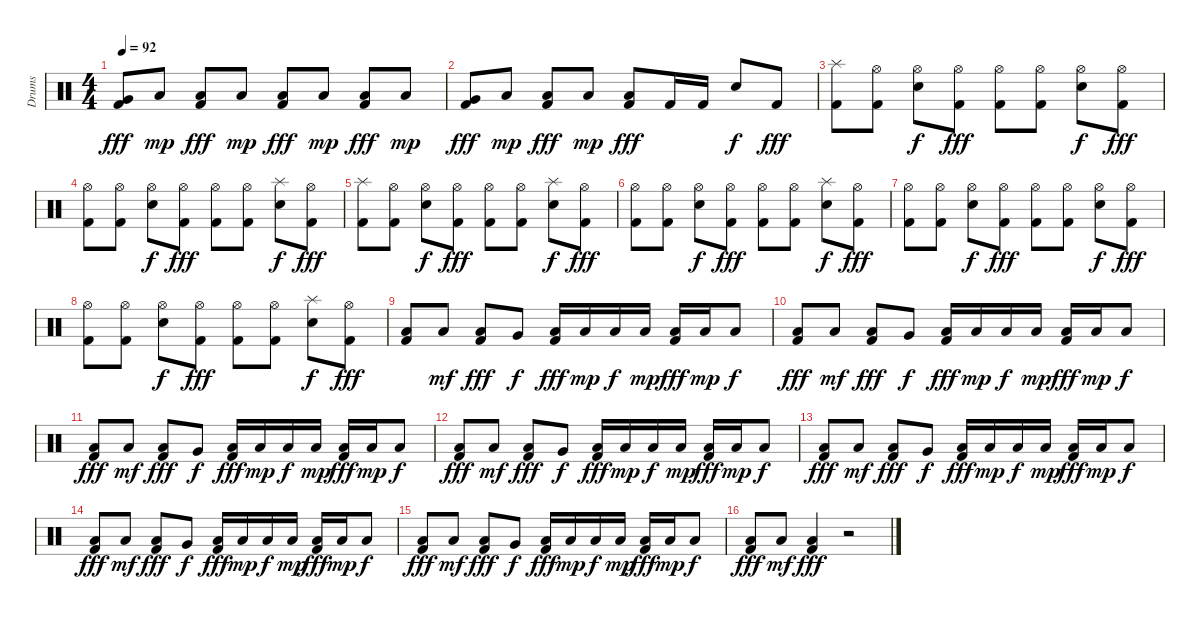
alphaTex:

\track ("Drums" "Drums") {instrument percussion}
\staff {score}
\articulation defaults
\ts (4 4)
\tempo 92
\clef neutral
\ks c
("Very Low Tom (hit)" "Kick (hit) 2").8{dy fff} "Low Floor Tom (hit)".8{dy mp} ("Low Floor Tom (hit)" "Kick (hit) 2").8{dy fff} "Low Floor Tom (hit)".8{dy mp} ("Low Floor Tom (hit)" "Kick (hit) 2").8{dy fff} "Low Floor Tom (hit)".8{dy mp} ("Low Floor Tom (hit)" "Kick (hit) 2").8{dy fff} "Low Floor Tom (hit)".8{dy mp} |
("Very Low Tom (hit)" "Kick (hit) 2").8{dy fff} "Low Floor Tom (hit)".8{dy mp} ("Low Floor Tom (hit)" "Kick (hit) 2").8{dy fff} "Low Floor Tom (hit)".8{dy mp} ("Low Floor Tom (hit)" "Kick (hit) 2").8{dy fff} "Kick (hit) 2".16 "Kick (hit) 2".16 "Snare (hit) 2".8{dy f} "Kick (hit) 2".8{dy fff} |
("Splash (hit)" "Kick (hit) 2").8 ("Hi-Hat (open)" "Kick (hit) 2").8 ("Hi-Hat (open)" "Snare (hit) 2").8{dy f} ("Hi-Hat (open)" "Kick (hit) 2").8{dy fff} ("Hi-Hat (open)" "Kick (hit) 2").8 ("Hi-Hat (open)" "Kick (hit) 2").8 ("Hi-Hat (open)" "Snare (hit) 2").8{dy f} ("Hi-Hat (open)" "Kick (hit) 2").8{dy fff} |
("Hi-Hat (open)" "Kick (hit) 2").8 ("Hi-Hat (open)" "Kick (hit) 2").8 ("Hi-Hat (open)" "Snare (hit) 2").8{dy f} ("Hi-Hat (open)" "Kick (hit) 2").8{dy fff} ("Hi-Hat (open)" "Kick (hit) 2").8 ("Hi-Hat (open)" "Kick (hit) 2").8 ("Splash (hit)" "Snare (hit) 2").8{dy f} ("Hi-Hat (open)" "Kick (hit) 2").8{dy fff} |
("Splash (hit)" "Kick (hit) 2").8 ("Hi-Hat (open)" "Kick (hit) 2").8 ("Hi-Hat (open)" "Snare (hit) 2").8{dy f} ("Hi-Hat (open)" "Kick (hit) 2").8{dy fff} ("Hi-Hat (open)" "Kick (hit) 2").8 ("Hi-Hat (open)" "Kick (hit) 2").8 ("Splash (hit)" "Snare (hit) 2").8{dy f} ("Hi-Hat (open)" "Kick (hit) 2").8{dy fff} |
("Hi-Hat (open)" "Kick (hit) 2").8 ("Hi-Hat (open)" "Kick (hit) 2").8 ("Hi-Hat (open)" "Snare (hit) 2").8{dy f} ("Hi-Hat (open)" "Kick (hit) 2").8{dy fff} ("Hi-Hat (open)" "Kick (hit) 2").8 ("Hi-Hat (open)" "Kick (hit) 2").8 ("Splash (hit)" "Snare (hit) 2").8{dy f} ("Hi-Hat (open)" "Kick (hit) 2").8{dy fff} |
("Hi-Hat (open)" "Kick (hit) 2").8 ("Hi-Hat (open)" "Kick (hit) 2").8 ("Hi-Hat (open)" "Snare (hit) 2").8{dy f} ("Hi-Hat (open)" "Kick (hit) 2").8{dy fff} ("Hi-Hat (open)" "Kick (hit) 2").8 ("Hi-Hat (open)" "Kick (hit) 2").8 ("Hi-Hat (open)" "Snare (hit) 2").8{dy f} ("Hi-Hat (open)" "Kick (hit) 2").8{dy fff} |
("Hi-Hat (open)" "Kick (hit) 2").8 ("Hi-Hat (open)" "Kick (hit) 2").8 ("Hi-Hat (open)" "Snare (hit) 2").8{dy f} ("Hi-Hat (open)" "Kick (hit) 2").8{dy fff} ("Hi-Hat (open)" "Kick (hit) 2").8 ("Hi-Hat (open)" "Kick (hit) 2").8 ("Splash (hit)" "Snare (hit) 2").8{dy f} ("Hi-Hat (open)" "Kick (hit) 2").8{dy fff} |
("Low Floor Tom (hit)" "Kick (hit) 2").8 "Low Floor Tom (hit)".8{dy mf} ("Low Floor Tom (hit)" "Kick (hit) 2").8{dy fff} "Very Low Tom (hit)".8{dy f} ("Low Floor Tom (hit)" "Kick (hit) 2").16{dy fff} "Low Floor Tom (hit)".16{dy mp} "Low Floor Tom (hit)".16{dy f} "Low Floor Tom (hit)".16{dy mp} ("Low Floor Tom (hit)" "Kick (hit) 2").16{dy fff} "Low Floor Tom (hit)".16{dy mp} "Low Floor Tom (hit)".8{dy f} |
("Low Floor Tom (hit)" "Kick (hit) 2").8{dy fff} "Low Floor Tom (hit)".8{dy mf} ("Low Floor Tom (hit)" "Kick (hit) 2").8{dy fff} "Very Low Tom (hit)".8{dy f} ("Low Floor Tom (hit)" "Kick (hit) 2").16{dy fff} "Low Floor Tom (hit)".16{dy mp} "Low Floor Tom (hit)".16{dy f} "Low Floor Tom (hit)".16{dy mp} ("Low Floor Tom (hit)" "Kick (hit) 2").16{dy fff} "Low Floor Tom (hit)".16{dy mp} "Low Floor Tom (hit)".8{dy f} |
("Low Floor Tom (hit)" "Kick (hit) 2").8{dy fff} "Low Floor Tom (hit)".8{dy mf} ("Low Floor Tom (hit)" "Kick (hit) 2").8{dy fff} "Very Low Tom (hit)".8{dy f} ("Low Floor Tom (hit)" "Kick (hit) 2").16{dy fff} "Low Floor Tom (hit)".16{dy mp} "Low Floor Tom (hit)".16{dy f} "Low Floor Tom (hit)".16{dy mp} ("Low Floor Tom (hit)" "Kick (hit) 2").16{dy fff} "Low Floor Tom (hit)".16{dy mp} "Low Floor Tom (hit)".8{dy f} |
("Low Floor Tom (hit)" "Kick (hit) 2").8{dy fff} "Low Floor Tom (hit)".8{dy mf} ("Low Floor Tom (hit)" "Kick (hit) 2").8{dy fff} "Very Low Tom (hit)".8{dy f} ("Low Floor Tom (hit)" "Kick (hit) 2").16{dy fff} "Low Floor Tom (hit)".16{dy mp} "Low Floor Tom (hit)".16{dy f} "Low Floor Tom (hit)".16{dy mp} ("Low Floor Tom (hit)" "Kick (hit) 2").16{dy fff} "Low Floor Tom (hit)".16{dy mp} "Low Floor Tom (hit)".8{dy f} |
("Low Floor Tom (hit)" "Kick (hit) 2").8{dy fff} "Low Floor Tom (hit)".8{dy mf} ("Low Floor Tom (hit)" "Kick (hit) 2").8{dy fff} "Very Low Tom (hit)".8{dy f} ("Low Floor Tom (hit)" "Kick (hit) 2").16{dy fff} "Low Floor Tom (hit)".16{dy mp} "Low Floor Tom (hit)".16{dy f} "Low Floor Tom (hit)".16{dy mp} ("Low Floor Tom (hit)" "Kick (hit) 2").16{dy fff} "Low Floor Tom (hit)".16{dy mp} "Low Floor Tom (hit)".8{dy f} |
("Low Floor Tom (hit)" "Kick (hit) 2").8{dy fff} "Low Floor Tom (hit)".8{dy mf} ("Low Floor Tom (hit)" "Kick (hit) 2").8{dy fff} "Very Low Tom (hit)".8{dy f} ("Low Floor Tom (hit)" "Kick (hit) 2").16{dy fff} "Low Floor Tom (hit)".16{dy mp} "Low Floor Tom (hit)".16{dy f} "Low Floor Tom (hit)".16{dy mp} ("Low Floor Tom (hit)" "Kick (hit) 2").16{dy fff} "Low Floor Tom (hit)".16{dy mp} "Low Floor Tom (hit)".8{dy f} |
("Low Floor Tom (hit)" "Kick (hit) 2").8{dy fff} "Low Floor Tom (hit)".8{dy mf} ("Low Floor Tom (hit)" "Kick (hit) 2").8{dy fff} "Very Low Tom (hit)".8{dy f} ("Low Floor Tom (hit)" "Kick (hit) 2").16{dy fff} "Low Floor Tom (hit)".16{dy mp} "Low Floor Tom (hit)".16{dy f} "Low Floor Tom (hit)".16{dy mp} ("Low Floor Tom (hit)" "Kick (hit) 2").16{dy fff} "Low Floor Tom (hit)".16{dy mp} "Low Floor Tom (hit)".8{dy f} |
("Low Floor Tom (hit)" "Kick (hit) 2").8{dy fff} "Low Floor Tom (hit)".8{dy mf} ("Low Floor Tom (hit)" "Kick (hit) 2").4{dy fff} r.2
